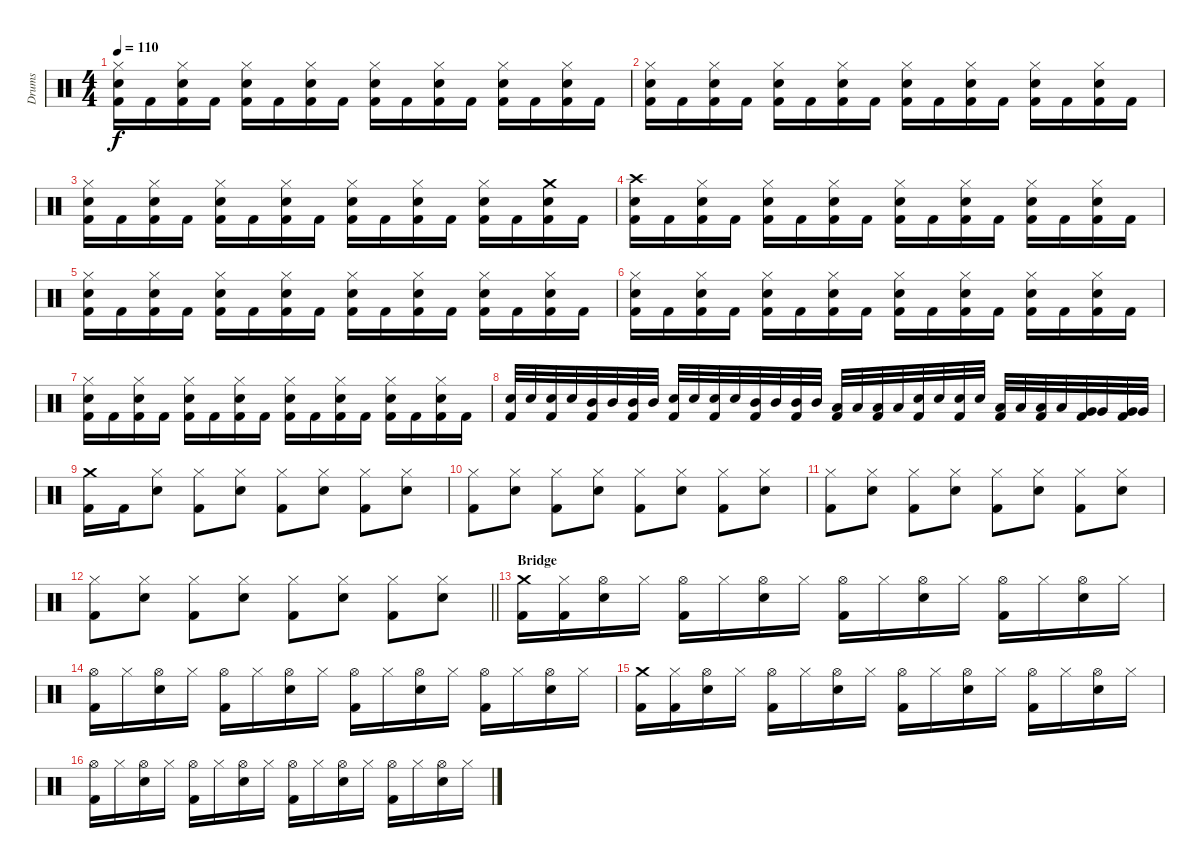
\track ("Drums" "Drums") {instrument percussion}
\staff {score}
\articulation defaults
\ts (4 4)
\tempo 110
\clef neutral
\ks c
("Kick (hit) 2" "Snare (hit) 2" "Hi-Hat (closed)").16{dy f} "Kick (hit) 2".16 ("Kick (hit) 2" "Snare (hit) 2" "Hi-Hat (closed)").16 "Kick (hit) 2".16 ("Kick (hit) 2" "Snare (hit) 2" "Hi-Hat (closed)").16 "Kick (hit) 2".16 ("Kick (hit) 2" "Snare (hit) 2" "Hi-Hat (closed)").16 "Kick (hit) 2".16 ("Kick (hit) 2" "Snare (hit) 2" "Hi-Hat (closed)").16 "Kick (hit) 2".16 ("Kick (hit) 2" "Snare (hit) 2" "Hi-Hat (closed)").16 "Kick (hit) 2".16 ("Kick (hit) 2" "Snare (hit) 2" "Hi-Hat (closed)").16 "Kick (hit) 2".16 ("Kick (hit) 2" "Snare (hit) 2" "Hi-Hat (closed)").16 "Kick (hit) 2".16 |
("Kick (hit) 2" "Snare (hit) 2" "Hi-Hat (closed)").16 "Kick (hit) 2".16 ("Kick (hit) 2" "Snare (hit) 2" "Hi-Hat (closed)").16 "Kick (hit) 2".16 ("Kick (hit) 2" "Snare (hit) 2" "Hi-Hat (closed)").16 "Kick (hit) 2".16 ("Kick (hit) 2" "Snare (hit) 2" "Hi-Hat (closed)").16 "Kick (hit) 2".16 ("Kick (hit) 2" "Snare (hit) 2" "Hi-Hat (closed)").16 "Kick (hit) 2".16 ("Kick (hit) 2" "Snare (hit) 2" "Hi-Hat (closed)").16 "Kick (hit) 2".16 ("Kick (hit) 2" "Snare (hit) 2" "Hi-Hat (closed)").16 "Kick (hit) 2".16 ("Kick (hit) 2" "Snare (hit) 2" "Hi-Hat (closed)").16 "Kick (hit) 2".16 |
("Kick (hit) 2" "Snare (hit) 2" "Hi-Hat (closed)").16 "Kick (hit) 2".16 ("Kick (hit) 2" "Snare (hit) 2" "Hi-Hat (closed)").16 "Kick (hit) 2".16 ("Kick (hit) 2" "Snare (hit) 2" "Hi-Hat (closed)").16 "Kick (hit) 2".16 ("Kick (hit) 2" "Snare (hit) 2" "Hi-Hat (closed)").16 "Kick (hit) 2".16 ("Kick (hit) 2" "Snare (hit) 2" "Hi-Hat (closed)").16 "Kick (hit) 2".16 ("Kick (hit) 2" "Snare (hit) 2" "Hi-Hat (closed)").16 "Kick (hit) 2".16 ("Kick (hit) 2" "Snare (hit) 2" "Hi-Hat (closed)").16 "Kick (hit) 2".16 ("Kick (hit) 2" "Snare (hit) 2" "Crash medium (hit)").16 "Kick (hit) 2".16 |
("Kick (hit) 2" "Snare (hit) 2" "Crash high (hit)").16 "Kick (hit) 2".16 ("Kick (hit) 2" "Snare (hit) 2" "Hi-Hat (closed)").16 "Kick (hit) 2".16 ("Kick (hit) 2" "Snare (hit) 2" "Hi-Hat (closed)").16 "Kick (hit) 2".16 ("Kick (hit) 2" "Snare (hit) 2" "Hi-Hat (closed)").16 "Kick (hit) 2".16 ("Kick (hit) 2" "Snare (hit) 2" "Hi-Hat (closed)").16 "Kick (hit) 2".16 ("Kick (hit) 2" "Snare (hit) 2" "Hi-Hat (closed)").16 "Kick (hit) 2".16 ("Kick (hit) 2" "Snare (hit) 2" "Hi-Hat (closed)").16 "Kick (hit) 2".16 ("Kick (hit) 2" "Snare (hit) 2" "Hi-Hat (closed)").16 "Kick (hit) 2".16 |
("Kick (hit) 2" "Snare (hit) 2" "Hi-Hat (closed)").16 "Kick (hit) 2".16 ("Kick (hit) 2" "Snare (hit) 2" "Hi-Hat (closed)").16 "Kick (hit) 2".16 ("Kick (hit) 2" "Snare (hit) 2" "Hi-Hat (closed)").16 "Kick (hit) 2".16 ("Kick (hit) 2" "Snare (hit) 2" "Hi-Hat (closed)").16 "Kick (hit) 2".16 ("Kick (hit) 2" "Snare (hit) 2" "Hi-Hat (closed)").16 "Kick (hit) 2".16 ("Kick (hit) 2" "Snare (hit) 2" "Hi-Hat (closed)").16 "Kick (hit) 2".16 ("Kick (hit) 2" "Snare (hit) 2" "Hi-Hat (closed)").16 "Kick (hit) 2".16 ("Kick (hit) 2" "Snare (hit) 2" "Hi-Hat (closed)").16 "Kick (hit) 2".16 |
("Kick (hit) 2" "Snare (hit) 2" "Hi-Hat (closed)").16 "Kick (hit) 2".16 ("Kick (hit) 2" "Snare (hit) 2" "Hi-Hat (closed)").16 "Kick (hit) 2".16 ("Kick (hit) 2" "Snare (hit) 2" "Hi-Hat (closed)").16 "Kick (hit) 2".16 ("Kick (hit) 2" "Snare (hit) 2" "Hi-Hat (closed)").16 "Kick (hit) 2".16 ("Kick (hit) 2" "Snare (hit) 2" "Hi-Hat (closed)").16 "Kick (hit) 2".16 ("Kick (hit) 2" "Snare (hit) 2" "Hi-Hat (closed)").16 "Kick (hit) 2".16 ("Kick (hit) 2" "Snare (hit) 2" "Hi-Hat (closed)").16 "Kick (hit) 2".16 ("Kick (hit) 2" "Snare (hit) 2" "Hi-Hat (closed)").16 "Kick (hit) 2".16 |
("Kick (hit) 2" "Snare (hit) 2" "Hi-Hat (closed)").16 "Kick (hit) 2".16 ("Kick (hit) 2" "Snare (hit) 2" "Hi-Hat (closed)").16 "Kick (hit) 2".16 ("Kick (hit) 2" "Snare (hit) 2" "Hi-Hat (closed)").16 "Kick (hit) 2".16 ("Kick (hit) 2" "Snare (hit) 2" "Hi-Hat (closed)").16 "Kick (hit) 2".16 ("Kick (hit) 2" "Snare (hit) 2" "Hi-Hat (closed)").16 "Kick (hit) 2".16 ("Kick (hit) 2" "Snare (hit) 2" "Hi-Hat (closed)").16 "Kick (hit) 2".16 ("Kick (hit) 2" "Snare (hit) 2" "Hi-Hat (closed)").16 "Kick (hit) 2".16 ("Kick (hit) 2" "Snare (hit) 2" "Hi-Hat (closed)").16 "Kick (hit) 2".16 |
("Kick (hit) 2" "Snare (hit) 2").32 "Snare (hit) 2".32 ("Kick (hit) 2" "Snare (hit) 2").32 "Snare (hit) 2".32 ("Kick (hit) 2" "Mid Tom (hit)").32 "Mid Tom (hit)".32 ("Kick (hit) 2" "Mid Tom (hit)").32 "Mid Tom (hit)".32 ("Kick (hit) 2" "Snare (hit) 2").32 "Snare (hit) 2".32 ("Kick (hit) 2" "Snare (hit) 2").32 "Snare (hit) 2".32 ("Kick (hit) 2" "Mid Tom (hit)").32 "Mid Tom (hit)".32 ("Kick (hit) 2" "Mid Tom (hit)").32 "Mid Tom (hit)".32 ("Kick (hit) 2" "Low Tom (hit)").32 "Low Tom (hit)".32 ("Kick (hit) 2" "Low Tom (hit)").32 "Low Tom (hit)".32 ("Kick (hit) 2" "Snare (hit) 2").32 "Snare (hit) 2".32 ("Kick (hit) 2" "Snare (hit) 2").32 "Snare (hit) 2".32 ("Kick (hit) 2" "Low Tom (hit)").32 "Low Tom (hit)".32 ("Kick (hit) 2" "Low Tom (hit)").32 "Low Tom (hit)".32 ("Kick (hit) 2" "Very Low Tom (hit)").32 "Very Low Tom (hit)".32 ("Kick (hit) 2" "Very Low Tom (hit)").32 "Very Low Tom (hit)".32 |
("Kick (hit) 2" "Crash medium (hit)").16 "Kick (hit) 2".16 ("Snare (hit) 2" "Hi-Hat (closed)").8 ("Kick (hit) 2" "Hi-Hat (closed)").8 ("Snare (hit) 2" "Hi-Hat (closed)").8 ("Kick (hit) 2" "Hi-Hat (closed)").8 ("Snare (hit) 2" "Hi-Hat (closed)").8 ("Kick (hit) 2" "Hi-Hat (closed)").8 ("Snare (hit) 2" "Hi-Hat (closed)").8 |
("Kick (hit) 2" "Hi-Hat (closed)").8 ("Snare (hit) 2" "Hi-Hat (closed)").8 ("Kick (hit) 2" "Hi-Hat (closed)").8 ("Snare (hit) 2" "Hi-Hat (closed)").8 ("Kick (hit) 2" "Hi-Hat (closed)").8 ("Snare (hit) 2" "Hi-Hat (closed)").8 ("Kick (hit) 2" "Hi-Hat (closed)").8 ("Snare (hit) 2" "Hi-Hat (closed)").8 |
("Kick (hit) 2" "Hi-Hat (closed)").8 ("Snare (hit) 2" "Hi-Hat (closed)").8 ("Kick (hit) 2" "Hi-Hat (closed)").8 ("Snare (hit) 2" "Hi-Hat (closed)").8 ("Kick (hit) 2" "Hi-Hat (closed)").8 ("Snare (hit) 2" "Hi-Hat (closed)").8 ("Kick (hit) 2" "Hi-Hat (closed)").8 ("Snare (hit) 2" "Hi-Hat (closed)").8 |
\barLineRight lightlight
("Kick (hit) 2" "Hi-Hat (closed)").8 ("Snare (hit) 2" "Hi-Hat (closed)").8 ("Kick (hit) 2" "Hi-Hat (closed)").8 ("Snare (hit) 2" "Hi-Hat (closed)").8 ("Kick (hit) 2" "Hi-Hat (closed)").8 ("Snare (hit) 2" "Hi-Hat (closed)").8 ("Kick (hit) 2" "Hi-Hat (closed)").8 ("Snare (hit) 2" "Hi-Hat (closed)").8 |
\section ("" "Bridge")
("Kick (hit) 2" "Crash medium (hit)").16 ("Kick (hit) 2" "Hi-Hat (closed)").16 ("Snare (hit) 2" "Hi-Hat (open)").16 "Hi-Hat (closed)".16 ("Kick (hit) 2" "Hi-Hat (open)").16 "Hi-Hat (closed)".16 ("Snare (hit) 2" "Hi-Hat (open)").16 "Hi-Hat (closed)".16 ("Kick (hit) 2" "Hi-Hat (open)").16 "Hi-Hat (closed)".16 ("Snare (hit) 2" "Hi-Hat (open)").16 "Hi-Hat (closed)".16 ("Kick (hit) 2" "Hi-Hat (open)").16 "Hi-Hat (closed)".16 ("Snare (hit) 2" "Hi-Hat (open)").16 "Hi-Hat (closed)".16 |
("Kick (hit) 2" "Hi-Hat (open)").16 "Hi-Hat (closed)".16 ("Snare (hit) 2" "Hi-Hat (open)").16 "Hi-Hat (closed)".16 ("Kick (hit) 2" "Hi-Hat (open)").16 "Hi-Hat (closed)".16 ("Snare (hit) 2" "Hi-Hat (open)").16 "Hi-Hat (closed)".16 ("Kick (hit) 2" "Hi-Hat (open)").16 "Hi-Hat (closed)".16 ("Snare (hit) 2" "Hi-Hat (open)").16 "Hi-Hat (closed)".16 ("Kick (hit) 2" "Hi-Hat (open)").16 "Hi-Hat (closed)".16 ("Snare (hit) 2" "Hi-Hat (open)").16 "Hi-Hat (closed)".16 |
("Kick (hit) 2" "Crash medium (hit)").16 ("Kick (hit) 2" "Hi-Hat (closed)").16 ("Snare (hit) 2" "Hi-Hat (open)").16 "Hi-Hat (closed)".16 ("Kick (hit) 2" "Hi-Hat (open)").16 "Hi-Hat (closed)".16 ("Snare (hit) 2" "Hi-Hat (open)").16 "Hi-Hat (closed)".16 ("Kick (hit) 2" "Hi-Hat (open)").16 "Hi-Hat (closed)".16 ("Snare (hit) 2" "Hi-Hat (open)").16 "Hi-Hat (closed)".16 ("Kick (hit) 2" "Hi-Hat (open)").16 "Hi-Hat (closed)".16 ("Snare (hit) 2" "Hi-Hat (open)").16 "Hi-Hat (closed)".16 |
("Kick (hit) 2" "Hi-Hat (open)").16 "Hi-Hat (closed)".16 ("Snare (hit) 2" "Hi-Hat (open)").16 "Hi-Hat (closed)".16 ("Kick (hit) 2" "Hi-Hat (open)").16 "Hi-Hat (closed)".16 ("Snare (hit) 2" "Hi-Hat (open)").16 "Hi-Hat (closed)".16 ("Kick (hit) 2" "Hi-Hat (open)").16 "Hi-Hat (closed)".16 ("Snare (hit) 2" "Hi-Hat (open)").16 "Hi-Hat (closed)".16 ("Kick (hit) 2" "Hi-Hat (open)").16 "Hi-Hat (closed)".16 ("Snare (hit) 2" "Hi-Hat (open)").16 "Hi-Hat (closed)".16
